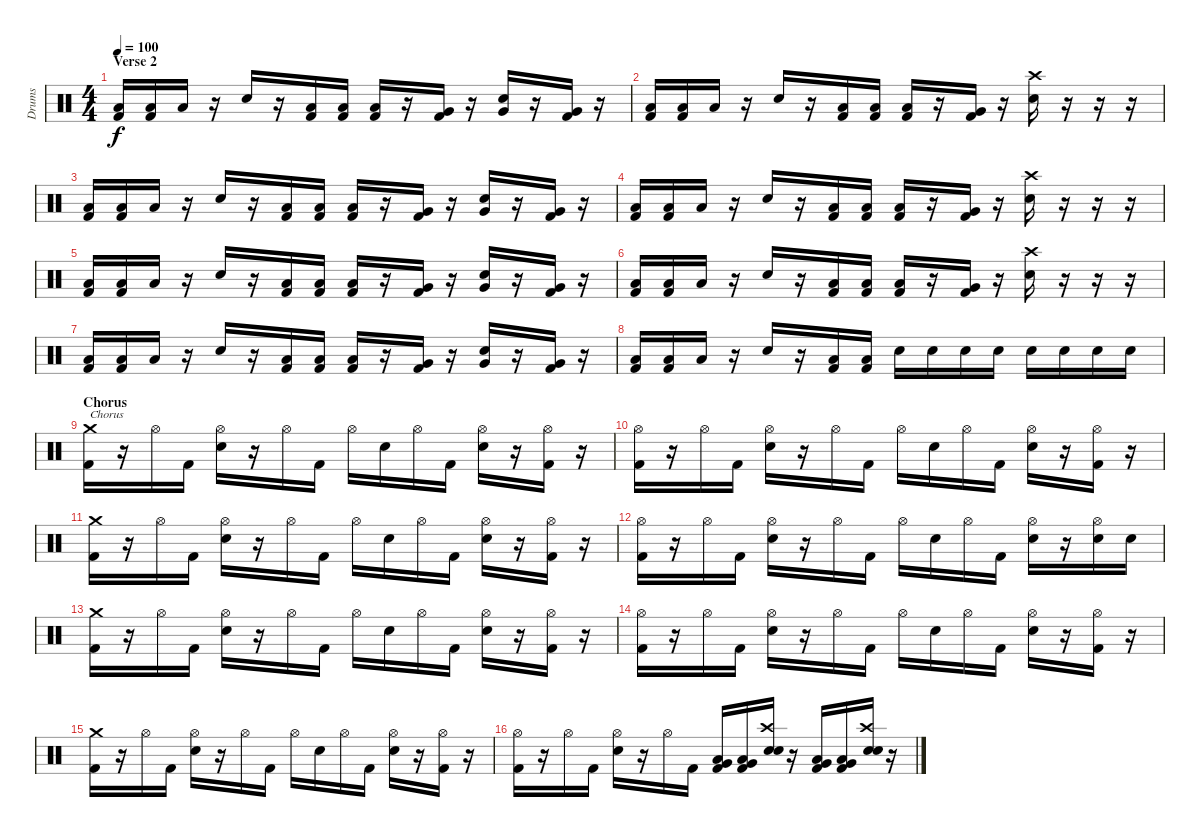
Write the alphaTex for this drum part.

\track ("Drums" "Drums") {instrument percussion}
\staff {score}
\articulation defaults
\ts (4 4)
\section ("" "Verse 2")
\tempo 100
\clef neutral
\ks c
("Low Tom (hit)" "Kick (hit) 2").16{dy f} ("Low Tom (hit)" "Kick (hit) 2").16 "Low Tom (hit)".16 r.16 "Electric Snare (hit)".16 r.16 ("Low Tom (hit)" "Kick (hit) 2").16 ("Low Tom (hit)" "Kick (hit) 2").16 ("Low Tom (hit)" "Kick (hit) 2").16 r.16 ("Very Low Tom (hit)" "Kick (hit) 2").16 r.16 ("Very Low Tom (hit)" "Electric Snare (hit)").16 r.16 ("Very Low Tom (hit)" "Kick (hit) 2").16 r.16 |
("Low Tom (hit)" "Kick (hit) 2").16 ("Low Tom (hit)" "Kick (hit) 2").16 "Low Tom (hit)".16 r.16 "Electric Snare (hit)".16 r.16 ("Low Tom (hit)" "Kick (hit) 2").16 ("Low Tom (hit)" "Kick (hit) 2").16 ("Low Tom (hit)" "Kick (hit) 2").16 r.16 ("Very Low Tom (hit)" "Kick (hit) 2").16 r.16 ("Crash high (hit)" "Electric Snare (hit)").16 r.16 r.16 r.16 |
("Low Tom (hit)" "Kick (hit) 2").16 ("Low Tom (hit)" "Kick (hit) 2").16 "Low Tom (hit)".16 r.16 "Electric Snare (hit)".16 r.16 ("Low Tom (hit)" "Kick (hit) 2").16 ("Low Tom (hit)" "Kick (hit) 2").16 ("Low Tom (hit)" "Kick (hit) 2").16 r.16 ("Very Low Tom (hit)" "Kick (hit) 2").16 r.16 ("Very Low Tom (hit)" "Electric Snare (hit)").16 r.16 ("Very Low Tom (hit)" "Kick (hit) 2").16 r.16 |
("Low Tom (hit)" "Kick (hit) 2").16 ("Low Tom (hit)" "Kick (hit) 2").16 "Low Tom (hit)".16 r.16 "Electric Snare (hit)".16 r.16 ("Low Tom (hit)" "Kick (hit) 2").16 ("Low Tom (hit)" "Kick (hit) 2").16 ("Low Tom (hit)" "Kick (hit) 2").16 r.16 ("Very Low Tom (hit)" "Kick (hit) 2").16 r.16 ("Crash high (hit)" "Electric Snare (hit)").16 r.16 r.16 r.16 |
("Low Tom (hit)" "Kick (hit) 2").16 ("Low Tom (hit)" "Kick (hit) 2").16 "Low Tom (hit)".16 r.16 "Electric Snare (hit)".16 r.16 ("Low Tom (hit)" "Kick (hit) 2").16 ("Low Tom (hit)" "Kick (hit) 2").16 ("Low Tom (hit)" "Kick (hit) 2").16 r.16 ("Very Low Tom (hit)" "Kick (hit) 2").16 r.16 ("Very Low Tom (hit)" "Electric Snare (hit)").16 r.16 ("Very Low Tom (hit)" "Kick (hit) 2").16 r.16 |
("Low Tom (hit)" "Kick (hit) 2").16 ("Low Tom (hit)" "Kick (hit) 2").16 "Low Tom (hit)".16 r.16 "Electric Snare (hit)".16 r.16 ("Low Tom (hit)" "Kick (hit) 2").16 ("Low Tom (hit)" "Kick (hit) 2").16 ("Low Tom (hit)" "Kick (hit) 2").16 r.16 ("Very Low Tom (hit)" "Kick (hit) 2").16 r.16 ("Crash high (hit)" "Electric Snare (hit)").16 r.16 r.16 r.16 |
("Low Tom (hit)" "Kick (hit) 2").16 ("Low Tom (hit)" "Kick (hit) 2").16 "Low Tom (hit)".16 r.16 "Electric Snare (hit)".16 r.16 ("Low Tom (hit)" "Kick (hit) 2").16 ("Low Tom (hit)" "Kick (hit) 2").16 ("Low Tom (hit)" "Kick (hit) 2").16 r.16 ("Very Low Tom (hit)" "Kick (hit) 2").16 r.16 ("Very Low Tom (hit)" "Electric Snare (hit)").16 r.16 ("Very Low Tom (hit)" "Kick (hit) 2").16 r.16 |
("Low Tom (hit)" "Kick (hit) 2").16 ("Low Tom (hit)" "Kick (hit) 2").16 "Low Tom (hit)".16 r.16 "Electric Snare (hit)".16 r.16 ("Low Tom (hit)" "Kick (hit) 2").16 ("Low Tom (hit)" "Kick (hit) 2").16 "Electric Snare (hit)".16 "Electric Snare (hit)".16 "Electric Snare (hit)".16 "Electric Snare (hit)".16 "Electric Snare (hit)".16 "Electric Snare (hit)".16 "Electric Snare (hit)".16 "Electric Snare (hit)".16 |
\section ("" "Chorus")
("Crash medium (hit)" "Kick (hit) 2").16{txt "Chorus "} r.16 "Hi-Hat (open)".16 "Kick (hit) 2".16 ("Hi-Hat (open)" "Electric Snare (hit)").16 r.16 "Hi-Hat (open)".16 "Kick (hit) 2".16 "Hi-Hat (open)".16 "Electric Snare (hit)".16 "Hi-Hat (open)".16 "Kick (hit) 2".16 ("Hi-Hat (open)" "Electric Snare (hit)").16 r.16 ("Hi-Hat (open)" "Kick (hit) 2").16 r.16 |
("Hi-Hat (open)" "Kick (hit) 2").16 r.16 "Hi-Hat (open)".16 "Kick (hit) 2".16 ("Hi-Hat (open)" "Electric Snare (hit)").16 r.16 "Hi-Hat (open)".16 "Kick (hit) 2".16 "Hi-Hat (open)".16 "Electric Snare (hit)".16 "Hi-Hat (open)".16 "Kick (hit) 2".16 ("Hi-Hat (open)" "Electric Snare (hit)").16 r.16 ("Hi-Hat (open)" "Kick (hit) 2").16 r.16 |
("Crash medium (hit)" "Kick (hit) 2").16 r.16 "Hi-Hat (open)".16 "Kick (hit) 2".16 ("Hi-Hat (open)" "Electric Snare (hit)").16 r.16 "Hi-Hat (open)".16 "Kick (hit) 2".16 "Hi-Hat (open)".16 "Electric Snare (hit)".16 "Hi-Hat (open)".16 "Kick (hit) 2".16 ("Hi-Hat (open)" "Electric Snare (hit)").16 r.16 ("Hi-Hat (open)" "Kick (hit) 2").16 r.16 |
("Hi-Hat (open)" "Kick (hit) 2").16 r.16 "Hi-Hat (open)".16 "Kick (hit) 2".16 ("Hi-Hat (open)" "Electric Snare (hit)").16 r.16 "Hi-Hat (open)".16 "Kick (hit) 2".16 "Hi-Hat (open)".16 "Electric Snare (hit)".16 "Hi-Hat (open)".16 "Kick (hit) 2".16 ("Hi-Hat (open)" "Electric Snare (hit)").16 r.16 ("Hi-Hat (open)" "Electric Snare (hit)").16 "Electric Snare (hit)".16 |
("Crash medium (hit)" "Kick (hit) 2").16 r.16 "Hi-Hat (open)".16 "Kick (hit) 2".16 ("Hi-Hat (open)" "Electric Snare (hit)").16 r.16 "Hi-Hat (open)".16 "Kick (hit) 2".16 "Hi-Hat (open)".16 "Electric Snare (hit)".16 "Hi-Hat (open)".16 "Kick (hit) 2".16 ("Hi-Hat (open)" "Electric Snare (hit)").16 r.16 ("Hi-Hat (open)" "Kick (hit) 2").16 r.16 |
("Hi-Hat (open)" "Kick (hit) 2").16 r.16 "Hi-Hat (open)".16 "Kick (hit) 2".16 ("Hi-Hat (open)" "Electric Snare (hit)").16 r.16 "Hi-Hat (open)".16 "Kick (hit) 2".16 "Hi-Hat (open)".16 "Electric Snare (hit)".16 "Hi-Hat (open)".16 "Kick (hit) 2".16 ("Hi-Hat (open)" "Electric Snare (hit)").16 r.16 ("Hi-Hat (open)" "Kick (hit) 2").16 r.16 |
("Crash medium (hit)" "Kick (hit) 2").16 r.16 "Hi-Hat (open)".16 "Kick (hit) 2".16 ("Hi-Hat (open)" "Electric Snare (hit)").16 r.16 "Hi-Hat (open)".16 "Kick (hit) 2".16 "Hi-Hat (open)".16 "Electric Snare (hit)".16 "Hi-Hat (open)".16 "Kick (hit) 2".16 ("Hi-Hat (open)" "Electric Snare (hit)").16 r.16 ("Hi-Hat (open)" "Kick (hit) 2").16 r.16 |
("Hi-Hat (open)" "Kick (hit) 2").16 r.16 "Hi-Hat (open)".16 "Kick (hit) 2".16 ("Hi-Hat (open)" "Electric Snare (hit)").16 r.16 "Hi-Hat (open)".16 "Kick (hit) 2".16 ("Very Low Tom (hit)" "Low Floor Tom (hit)" "Kick (hit) 2").16 ("Very Low Tom (hit)" "Low Floor Tom (hit)" "Kick (hit) 2").16 ("Crash high (hit)" "Snare (hit) 2" "Electric Snare (hit)").16 r.16 ("Very Low Tom (hit)" "Low Floor Tom (hit)" "Kick (hit) 2").16 ("Very Low Tom (hit)" "Low Floor Tom (hit)" "Kick (hit) 2").16 ("Crash high (hit)" "Snare (hit) 2" "Electric Snare (hit)").16 r.16
